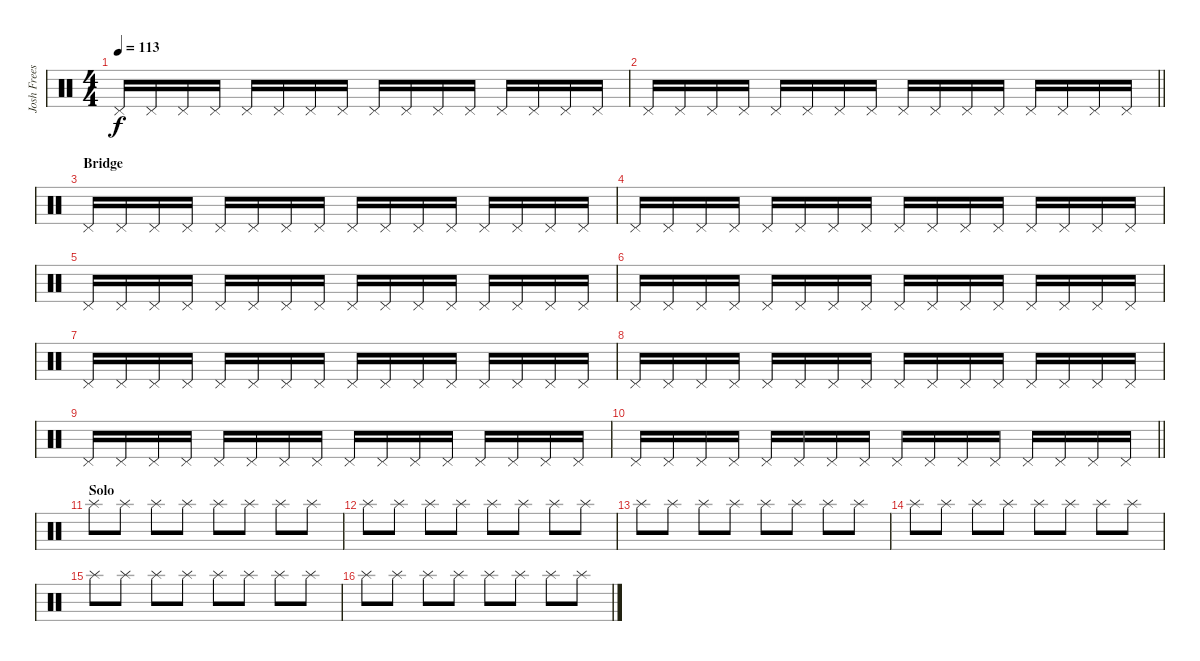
\track ("Josh Freese (Studio Drummer)" "Josh Frees") {instrument percussion}
\staff {score}
\articulation defaults
\ts (4 4)
\tempo 113
\clef neutral
\ks c "Pedal Hi-Hat (hit)".16{dy f} "Pedal Hi-Hat (hit)".16 "Pedal Hi-Hat (hit)".16 "Pedal Hi-Hat (hit)".16 "Pedal Hi-Hat (hit)".16 "Pedal Hi-Hat (hit)".16 "Pedal Hi-Hat (hit)".16 "Pedal Hi-Hat (hit)".16 "Pedal Hi-Hat (hit)".16 "Pedal Hi-Hat (hit)".16 "Pedal Hi-Hat (hit)".16 "Pedal Hi-Hat (hit)".16 "Pedal Hi-Hat (hit)".16 "Pedal Hi-Hat (hit)".16 "Pedal Hi-Hat (hit)".16 "Pedal Hi-Hat (hit)".16
|
\barLineRight lightlight "Pedal Hi-Hat (hit)".16 "Pedal Hi-Hat (hit)".16 "Pedal Hi-Hat (hit)".16 "Pedal Hi-Hat (hit)".16 "Pedal Hi-Hat (hit)".16 "Pedal Hi-Hat (hit)".16 "Pedal Hi-Hat (hit)".16 "Pedal Hi-Hat (hit)".16 "Pedal Hi-Hat (hit)".16 "Pedal Hi-Hat (hit)".16 "Pedal Hi-Hat (hit)".16 "Pedal Hi-Hat (hit)".16 "Pedal Hi-Hat (hit)".16 "Pedal Hi-Hat (hit)".16 "Pedal Hi-Hat (hit)".16 "Pedal Hi-Hat (hit)".16
|
\section ("" "Bridge")
"Pedal Hi-Hat (hit)".16 "Pedal Hi-Hat (hit)".16 "Pedal Hi-Hat (hit)".16 "Pedal Hi-Hat (hit)".16 "Pedal Hi-Hat (hit)".16 "Pedal Hi-Hat (hit)".16 "Pedal Hi-Hat (hit)".16 "Pedal Hi-Hat (hit)".16 "Pedal Hi-Hat (hit)".16 "Pedal Hi-Hat (hit)".16 "Pedal Hi-Hat (hit)".16 "Pedal Hi-Hat (hit)".16 "Pedal Hi-Hat (hit)".16 "Pedal Hi-Hat (hit)".16 "Pedal Hi-Hat (hit)".16 "Pedal Hi-Hat (hit)".16 |
"Pedal Hi-Hat (hit)".16 "Pedal Hi-Hat (hit)".16 "Pedal Hi-Hat (hit)".16 "Pedal Hi-Hat (hit)".16 "Pedal Hi-Hat (hit)".16 "Pedal Hi-Hat (hit)".16 "Pedal Hi-Hat (hit)".16 "Pedal Hi-Hat (hit)".16 "Pedal Hi-Hat (hit)".16 "Pedal Hi-Hat (hit)".16 "Pedal Hi-Hat (hit)".16 "Pedal Hi-Hat (hit)".16 "Pedal Hi-Hat (hit)".16 "Pedal Hi-Hat (hit)".16 "Pedal Hi-Hat (hit)".16 "Pedal Hi-Hat (hit)".16 |
"Pedal Hi-Hat (hit)".16 "Pedal Hi-Hat (hit)".16 "Pedal Hi-Hat (hit)".16 "Pedal Hi-Hat (hit)".16 "Pedal Hi-Hat (hit)".16 "Pedal Hi-Hat (hit)".16 "Pedal Hi-Hat (hit)".16 "Pedal Hi-Hat (hit)".16 "Pedal Hi-Hat (hit)".16 "Pedal Hi-Hat (hit)".16 "Pedal Hi-Hat (hit)".16 "Pedal Hi-Hat (hit)".16 "Pedal Hi-Hat (hit)".16 "Pedal Hi-Hat (hit)".16 "Pedal Hi-Hat (hit)".16 "Pedal Hi-Hat (hit)".16 |
"Pedal Hi-Hat (hit)".16 "Pedal Hi-Hat (hit)".16 "Pedal Hi-Hat (hit)".16 "Pedal Hi-Hat (hit)".16 "Pedal Hi-Hat (hit)".16 "Pedal Hi-Hat (hit)".16 "Pedal Hi-Hat (hit)".16 "Pedal Hi-Hat (hit)".16 "Pedal Hi-Hat (hit)".16 "Pedal Hi-Hat (hit)".16 "Pedal Hi-Hat (hit)".16 "Pedal Hi-Hat (hit)".16 "Pedal Hi-Hat (hit)".16 "Pedal Hi-Hat (hit)".16 "Pedal Hi-Hat (hit)".16 "Pedal Hi-Hat (hit)".16 |
"Pedal Hi-Hat (hit)".16 "Pedal Hi-Hat (hit)".16 "Pedal Hi-Hat (hit)".16 "Pedal Hi-Hat (hit)".16 "Pedal Hi-Hat (hit)".16 "Pedal Hi-Hat (hit)".16 "Pedal Hi-Hat (hit)".16 "Pedal Hi-Hat (hit)".16 "Pedal Hi-Hat (hit)".16 "Pedal Hi-Hat (hit)".16 "Pedal Hi-Hat (hit)".16 "Pedal Hi-Hat (hit)".16 "Pedal Hi-Hat (hit)".16 "Pedal Hi-Hat (hit)".16 "Pedal Hi-Hat (hit)".16 "Pedal Hi-Hat (hit)".16 |
"Pedal Hi-Hat (hit)".16 "Pedal Hi-Hat (hit)".16 "Pedal Hi-Hat (hit)".16 "Pedal Hi-Hat (hit)".16 "Pedal Hi-Hat (hit)".16 "Pedal Hi-Hat (hit)".16 "Pedal Hi-Hat (hit)".16 "Pedal Hi-Hat (hit)".16 "Pedal Hi-Hat (hit)".16 "Pedal Hi-Hat (hit)".16 "Pedal Hi-Hat (hit)".16 "Pedal Hi-Hat (hit)".16 "Pedal Hi-Hat (hit)".16 "Pedal Hi-Hat (hit)".16 "Pedal Hi-Hat (hit)".16 "Pedal Hi-Hat (hit)".16 |
"Pedal Hi-Hat (hit)".16 "Pedal Hi-Hat (hit)".16 "Pedal Hi-Hat (hit)".16 "Pedal Hi-Hat (hit)".16 "Pedal Hi-Hat (hit)".16 "Pedal Hi-Hat (hit)".16 "Pedal Hi-Hat (hit)".16 "Pedal Hi-Hat (hit)".16 "Pedal Hi-Hat (hit)".16 "Pedal Hi-Hat (hit)".16 "Pedal Hi-Hat (hit)".16 "Pedal Hi-Hat (hit)".16 "Pedal Hi-Hat (hit)".16 "Pedal Hi-Hat (hit)".16 "Pedal Hi-Hat (hit)".16 "Pedal Hi-Hat (hit)".16 |
\barLineRight lightlight "Pedal Hi-Hat (hit)".16 "Pedal Hi-Hat (hit)".16 "Pedal Hi-Hat (hit)".16 "Pedal Hi-Hat (hit)".16 "Pedal Hi-Hat (hit)".16 "Pedal Hi-Hat (hit)".16 "Pedal Hi-Hat (hit)".16 "Pedal Hi-Hat (hit)".16 "Pedal Hi-Hat (hit)".16 "Pedal Hi-Hat (hit)".16 "Pedal Hi-Hat (hit)".16 "Pedal Hi-Hat (hit)".16 "Pedal Hi-Hat (hit)".16 "Pedal Hi-Hat (hit)".16 "Pedal Hi-Hat (hit)".16 "Pedal Hi-Hat (hit)".16
|
\section ("" "Solo")
"Splash (hit)".8 "Splash (hit)".8 "Splash (hit)".8 "Splash (hit)".8 "Splash (hit)".8 "Splash (hit)".8 "Splash (hit)".8 "Splash (hit)".8 |
"Splash (hit)".8 "Splash (hit)".8 "Splash (hit)".8 "Splash (hit)".8 "Splash (hit)".8 "Splash (hit)".8 "Splash (hit)".8 "Splash (hit)".8 |
"Splash (hit)".8 "Splash (hit)".8 "Splash (hit)".8 "Splash (hit)".8 "Splash (hit)".8 "Splash (hit)".8 "Splash (hit)".8 "Splash (hit)".8 |
"Splash (hit)".8 "Splash (hit)".8 "Splash (hit)".8 "Splash (hit)".8 "Splash (hit)".8 "Splash (hit)".8 "Splash (hit)".8 "Splash (hit)".8 |
"Splash (hit)".8 "Splash (hit)".8 "Splash (hit)".8 "Splash (hit)".8 "Splash (hit)".8 "Splash (hit)".8 "Splash (hit)".8 "Splash (hit)".8 |
"Splash (hit)".8 "Splash (hit)".8 "Splash (hit)".8 "Splash (hit)".8 "Splash (hit)".8 "Splash (hit)".8 "Splash (hit)".8 "Splash (hit)".8
